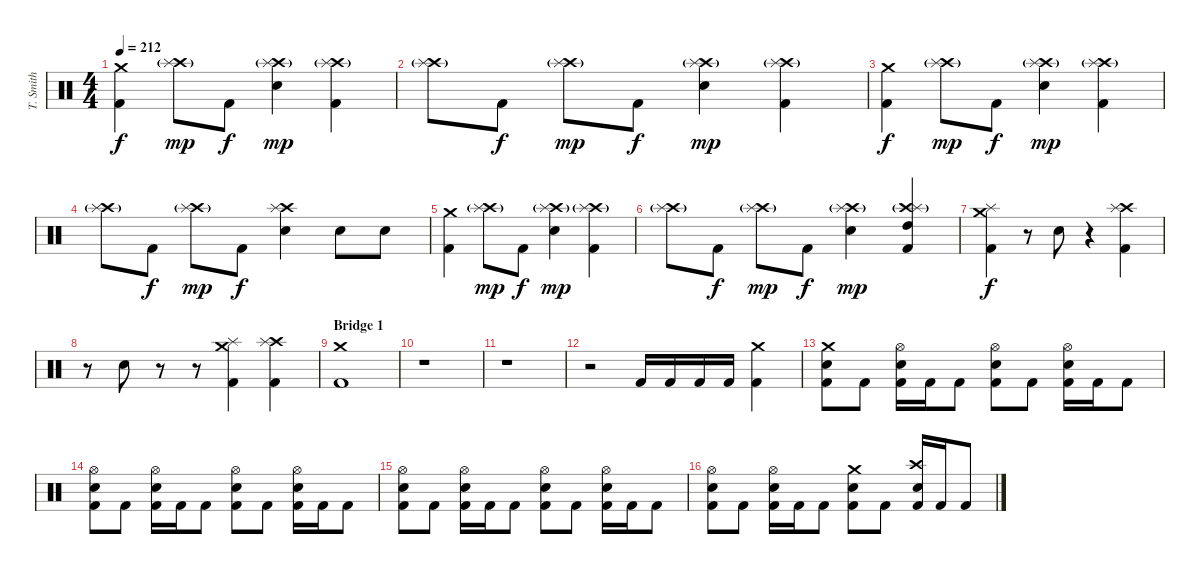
\track ("T. Smith" "T. Smith") {instrument percussion}
\staff {score}
\articulation defaults
\ts (4 4)
\tempo 212
\clef neutral
\ks c
("Crash medium (hit)" "Kick (hit) 2").4{dy f} ("Crash high (hit)"{g} "Splash (hit)").8{dy mp} "Kick (hit) 2".8{dy f} ("Crash high (hit)"{g} "Splash (hit)" "Electric Snare (hit)").4{dy mp} ("Crash high (hit)"{g} "Splash (hit)" "Kick (hit) 2").4 |
("Crash high (hit)"{g} "Splash (hit)").8 "Kick (hit) 2".8{dy f} ("Crash high (hit)"{g} "Splash (hit)").8{dy mp} "Kick (hit) 2".8{dy f} ("Crash high (hit)"{g} "Splash (hit)" "Electric Snare (hit)").4{dy mp} ("Crash high (hit)"{g} "Splash (hit)" "Kick (hit) 2").4 |
("Crash medium (hit)" "Kick (hit) 2").4{dy f} ("Crash high (hit)"{g} "Splash (hit)").8{dy mp} "Kick (hit) 2".8{dy f} ("Crash high (hit)"{g} "Splash (hit)" "Electric Snare (hit)").4{dy mp} ("Crash high (hit)"{g} "Splash (hit)" "Kick (hit) 2").4 |
("Crash high (hit)"{g} "Splash (hit)").8 "Kick (hit) 2".8{dy f} ("Crash high (hit)"{g} "Splash (hit)").8{dy mp} "Kick (hit) 2".8{dy f} ("Crash high (hit)" "Splash (hit)" "Electric Snare (hit)").4 "Electric Snare (hit)".8 "Electric Snare (hit)".8 |
("Crash medium (hit)" "Kick (hit) 2").4 ("Crash high (hit)"{g} "Splash (hit)").8{dy mp} "Kick (hit) 2".8{dy f} ("Crash high (hit)"{g} "Splash (hit)" "Electric Snare (hit)").4{dy mp} ("Crash high (hit)"{g} "Splash (hit)" "Kick (hit) 2").4 |
("Crash high (hit)"{g} "Splash (hit)").8 "Kick (hit) 2".8{dy f} ("Crash high (hit)"{g} "Splash (hit)").8{dy mp} "Kick (hit) 2".8{dy f} ("Crash high (hit)"{g} "Splash (hit)" "Electric Snare (hit)").4{dy mp} ("Crash high (hit)"{g} "Splash (hit)" "High Tom (hit)" "Kick (hit) 2").4 |
("Crash medium (hit)" "Splash (hit)" "Kick (hit) 2").4{dy f} r.8 "Electric Snare (hit)".8 r.4 ("Crash high (hit)" "Splash (hit)" "Kick (hit) 2").4 |
r.8 "Electric Snare (hit)".8 r.8 r.8 ("Crash medium (hit)" "Splash (hit)" "Kick (hit) 2").4 ("Crash high (hit)" "Splash (hit)" "Kick (hit) 2").4 |
\section ("" "Bridge 1")
("Crash medium (hit)" "Kick (hit) 2").1 |
r.1 |
r.1 |
r.2 "Kick (hit) 2".16 "Kick (hit) 2".16 "Kick (hit) 2".16 "Kick (hit) 2".16 ("Crash medium (hit)" "Kick (hit) 2").4 |
("Crash medium (hit)" "Electric Snare (hit)" "Kick (hit) 2").8 "Kick (hit) 2".8 ("Hi-Hat (open)" "Electric Snare (hit)" "Kick (hit) 2").16 "Kick (hit) 2".16 "Kick (hit) 2".8 ("Hi-Hat (open)" "Electric Snare (hit)" "Kick (hit) 2").8 "Kick (hit) 2".8 ("Hi-Hat (open)" "Electric Snare (hit)" "Kick (hit) 2").16 "Kick (hit) 2".16 "Kick (hit) 2".8 |
("Hi-Hat (open)" "Electric Snare (hit)" "Kick (hit) 2").8 "Kick (hit) 2".8 ("Hi-Hat (open)" "Electric Snare (hit)" "Kick (hit) 2").16 "Kick (hit) 2".16 "Kick (hit) 2".8 ("Hi-Hat (open)" "Electric Snare (hit)" "Kick (hit) 2").8 "Kick (hit) 2".8 ("Hi-Hat (open)" "Electric Snare (hit)" "Kick (hit) 2").16 "Kick (hit) 2".16 "Kick (hit) 2".8 |
("Hi-Hat (open)" "Electric Snare (hit)" "Kick (hit) 2").8 "Kick (hit) 2".8 ("Hi-Hat (open)" "Electric Snare (hit)" "Kick (hit) 2").16 "Kick (hit) 2".16 "Kick (hit) 2".8 ("Hi-Hat (open)" "Electric Snare (hit)" "Kick (hit) 2").8 "Kick (hit) 2".8 ("Hi-Hat (open)" "Electric Snare (hit)" "Kick (hit) 2").16 "Kick (hit) 2".16 "Kick (hit) 2".8 |
("Hi-Hat (open)" "Electric Snare (hit)" "Kick (hit) 2").8 "Kick (hit) 2".8 ("Hi-Hat (open)" "Electric Snare (hit)" "Kick (hit) 2").16 "Kick (hit) 2".16 "Kick (hit) 2".8 ("Crash medium (hit)" "Electric Snare (hit)" "Kick (hit) 2").8 "Kick (hit) 2".8 ("Crash high (hit)" "Electric Snare (hit)" "Kick (hit) 2").16 "Kick (hit) 2".16 "Kick (hit) 2".8
